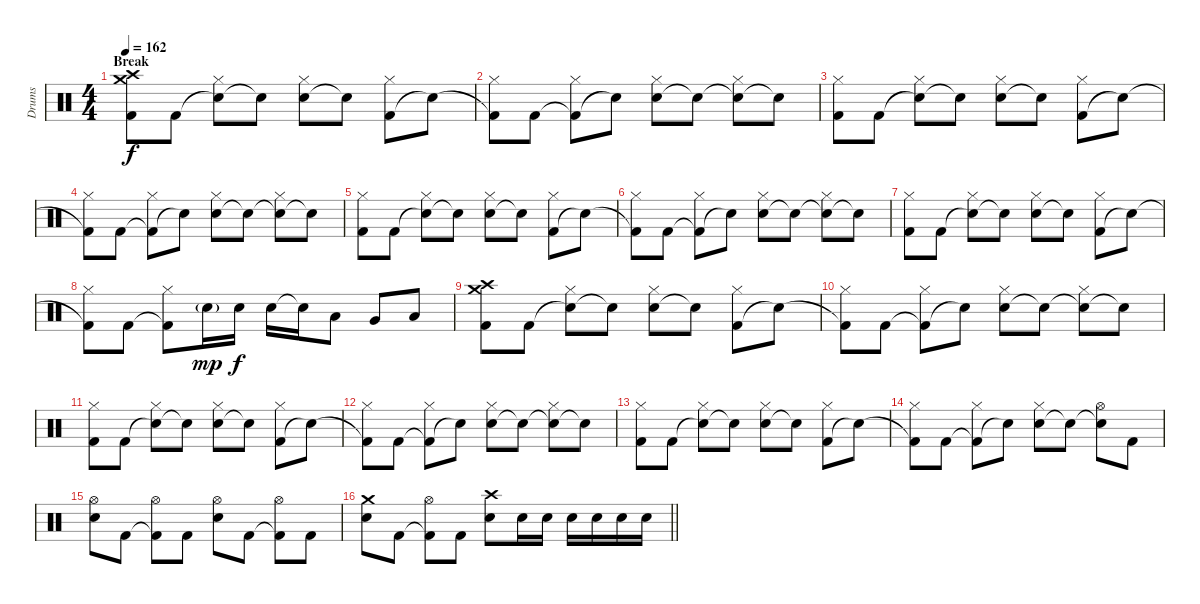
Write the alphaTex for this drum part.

\track ("Drums" "Drums") {instrument percussion}
\staff {score}
\articulation defaults
\ts (4 4)
\section ("" "Break")
\tempo 162
\clef neutral
\ks c
("Kick (hit) 2" "Crash medium (hit)" "Crash high (hit)").8{dy f} "Kick (hit) 2".8 ("Snare (hit)"{t} "Hi-Hat (closed)").8 "Electric Snare (hit)"{t}.8 ("Electric Snare (hit)" "Hi-Hat (closed)").8 "Snare (hit)"{t}.8 ("Kick (hit) 2" "Hi-Hat (closed)").8 "Snare (hit)"{t}.8 |
("Kick (hit) 2"{t} "Hi-Hat (closed)").8 "Kick (hit) 2".8 ("Kick (hit) 2"{t} "Hi-Hat (closed)").8 "Snare (hit)"{t}.8 ("Electric Snare (hit)" "Hi-Hat (closed)").8 "Electric Snare (hit)"{t}.8 ("Snare (hit)"{t} "Hi-Hat (closed)").8 "Snare (hit)"{t}.8 |
("Kick (hit) 2" "Hi-Hat (closed)").8 "Kick (hit) 2".8 ("Snare (hit)"{t} "Hi-Hat (closed)").8 "Electric Snare (hit)"{t}.8 ("Electric Snare (hit)" "Hi-Hat (closed)").8 "Snare (hit)"{t}.8 ("Kick (hit) 2" "Hi-Hat (closed)").8 "Snare (hit)"{t}.8 |
("Kick (hit) 2"{t} "Hi-Hat (closed)").8 "Kick (hit) 2".8 ("Kick (hit) 2"{t} "Hi-Hat (closed)").8 "Snare (hit)"{t}.8 ("Electric Snare (hit)" "Hi-Hat (closed)").8 "Electric Snare (hit)"{t}.8 ("Snare (hit)"{t} "Hi-Hat (closed)").8 "Snare (hit)"{t}.8 |
("Kick (hit) 2" "Hi-Hat (closed)").8 "Kick (hit) 2".8 ("Snare (hit)"{t} "Hi-Hat (closed)").8 "Electric Snare (hit)"{t}.8 ("Electric Snare (hit)" "Hi-Hat (closed)").8 "Snare (hit)"{t}.8 ("Kick (hit) 2" "Hi-Hat (closed)").8 "Snare (hit)"{t}.8 |
("Kick (hit) 2"{t} "Hi-Hat (closed)").8 "Kick (hit) 2".8 ("Kick (hit) 2"{t} "Hi-Hat (closed)").8 "Snare (hit)"{t}.8 ("Electric Snare (hit)" "Hi-Hat (closed)").8 "Electric Snare (hit)"{t}.8 ("Snare (hit)"{t} "Hi-Hat (closed)").8 "Snare (hit)"{t}.8 |
("Kick (hit) 2" "Hi-Hat (closed)").8 "Kick (hit) 2".8 ("Snare (hit)"{t} "Hi-Hat (closed)").8 "Electric Snare (hit)"{t}.8 ("Electric Snare (hit)" "Hi-Hat (closed)").8 "Snare (hit)"{t}.8 ("Kick (hit) 2" "Hi-Hat (closed)").8 "Snare (hit)"{t}.8 |
("Kick (hit) 2"{t} "Hi-Hat (closed)").8 "Kick (hit) 2".8 ("Kick (hit) 2"{t} "Hi-Hat (closed)").8 "Electric Snare (hit)"{g}.16{dy mp} "Electric Snare (hit)".16{dy f} "Electric Snare (hit)".16 "Electric Snare (hit)"{t}.16 "Low Tom (hit)".8 "Very Low Tom (hit)".8 "Low Floor Tom (hit)".8 |
("Kick (hit) 2" "Crash medium (hit)" "Crash high (hit)").8 "Kick (hit) 2".8 ("Snare (hit)"{t} "Hi-Hat (closed)").8 "Electric Snare (hit)"{t}.8 ("Electric Snare (hit)" "Hi-Hat (closed)").8 "Snare (hit)"{t}.8 ("Kick (hit) 2" "Hi-Hat (closed)").8 "Snare (hit)"{t}.8 |
("Kick (hit) 2"{t} "Hi-Hat (closed)").8 "Kick (hit) 2".8 ("Kick (hit) 2"{t} "Hi-Hat (closed)").8 "Snare (hit)"{t}.8 ("Electric Snare (hit)" "Hi-Hat (closed)").8 "Electric Snare (hit)"{t}.8 ("Snare (hit)"{t} "Hi-Hat (closed)").8 "Snare (hit)"{t}.8 |
("Kick (hit) 2" "Hi-Hat (closed)").8 "Kick (hit) 2".8 ("Snare (hit)"{t} "Hi-Hat (closed)").8 "Electric Snare (hit)"{t}.8 ("Electric Snare (hit)" "Hi-Hat (closed)").8 "Snare (hit)"{t}.8 ("Kick (hit) 2" "Hi-Hat (closed)").8 "Snare (hit)"{t}.8 |
("Kick (hit) 2"{t} "Hi-Hat (closed)").8 "Kick (hit) 2".8 ("Kick (hit) 2"{t} "Hi-Hat (closed)").8 "Snare (hit)"{t}.8 ("Electric Snare (hit)" "Hi-Hat (closed)").8 "Electric Snare (hit)"{t}.8 ("Snare (hit)"{t} "Hi-Hat (closed)").8 "Snare (hit)"{t}.8 |
("Kick (hit) 2" "Hi-Hat (closed)").8 "Kick (hit) 2".8 ("Snare (hit)"{t} "Hi-Hat (closed)").8 "Electric Snare (hit)"{t}.8 ("Electric Snare (hit)" "Hi-Hat (closed)").8 "Snare (hit)"{t}.8 ("Kick (hit) 2" "Hi-Hat (closed)").8 "Snare (hit)"{t}.8 |
("Kick (hit) 2"{t} "Hi-Hat (closed)").8 "Kick (hit) 2".8 ("Kick (hit) 2"{t} "Hi-Hat (closed)").8 "Snare (hit)"{t}.8 ("Electric Snare (hit)" "Hi-Hat (closed)").8 "Electric Snare (hit)"{t}.8 ("Snare (hit)"{t} "Hi-Hat (open)").8 "Kick (hit) 2".8 |
("Electric Snare (hit)" "Hi-Hat (open)").8 "Kick (hit) 2".8 ("Kick (hit) 2"{t} "Hi-Hat (open)").8 "Kick (hit) 2".8 ("Electric Snare (hit)" "Hi-Hat (open)").8 "Kick (hit) 2".8 ("Kick (hit) 2"{t} "Hi-Hat (open)").8 "Kick (hit) 2".8 |
\barLineRight lightlight
("Electric Snare (hit)" "Crash medium (hit)").8 "Kick (hit) 2".8 ("Kick (hit) 2"{t} "Hi-Hat (open)").8 "Kick (hit) 2".8 ("Electric Snare (hit)" "Crash high (hit)").8 "Electric Snare (hit)".16 "Electric Snare (hit)".16 "Electric Snare (hit)".16 "Electric Snare (hit)".16 "Electric Snare (hit)".16 "Electric Snare (hit)".16
